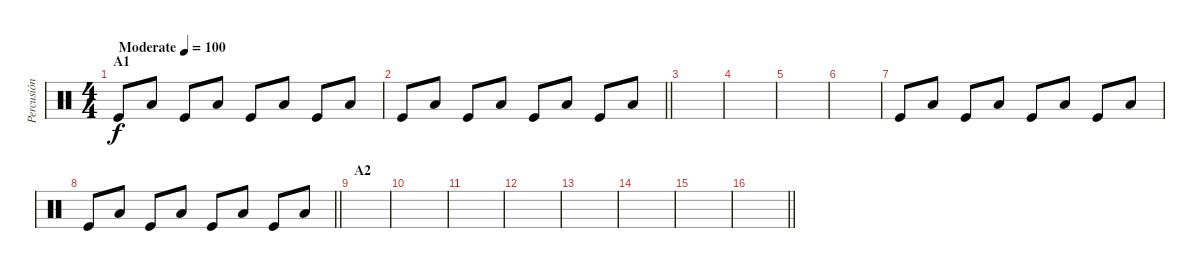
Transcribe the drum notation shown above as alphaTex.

\track ("Percusión" "Percusión") {instrument percussion}
\staff {score}
\articulation defaults
\ts (4 4)
\section ("" "A1")
\tempo (100 "Moderate")
\clef neutral
\ks c "Kick (hit)".8{dy f} "Low Floor Tom (hit)".8 "Kick (hit)".8 "Low Floor Tom (hit)".8 "Kick (hit)".8 "Low Floor Tom (hit)".8 "Kick (hit)".8 "Low Floor Tom (hit)".8
|
\barLineRight lightlight "Kick (hit)".8 "Low Floor Tom (hit)".8 "Kick (hit)".8 "Low Floor Tom (hit)".8 "Kick (hit)".8 "Low Floor Tom (hit)".8 "Kick (hit)".8 "Low Floor Tom (hit)".8
|
|
|
|
|
"Kick (hit)".8 "Low Floor Tom (hit)".8 "Kick (hit)".8 "Low Floor Tom (hit)".8 "Kick (hit)".8 "Low Floor Tom (hit)".8 "Kick (hit)".8 "Low Floor Tom (hit)".8 |
\barLineRight lightlight "Kick (hit)".8 "Low Floor Tom (hit)".8 "Kick (hit)".8 "Low Floor Tom (hit)".8 "Kick (hit)".8 "Low Floor Tom (hit)".8 "Kick (hit)".8 "Low Floor Tom (hit)".8
|
\section ("" "A2")
|
|
|
|
|
|
|
\barLineRight lightlight
